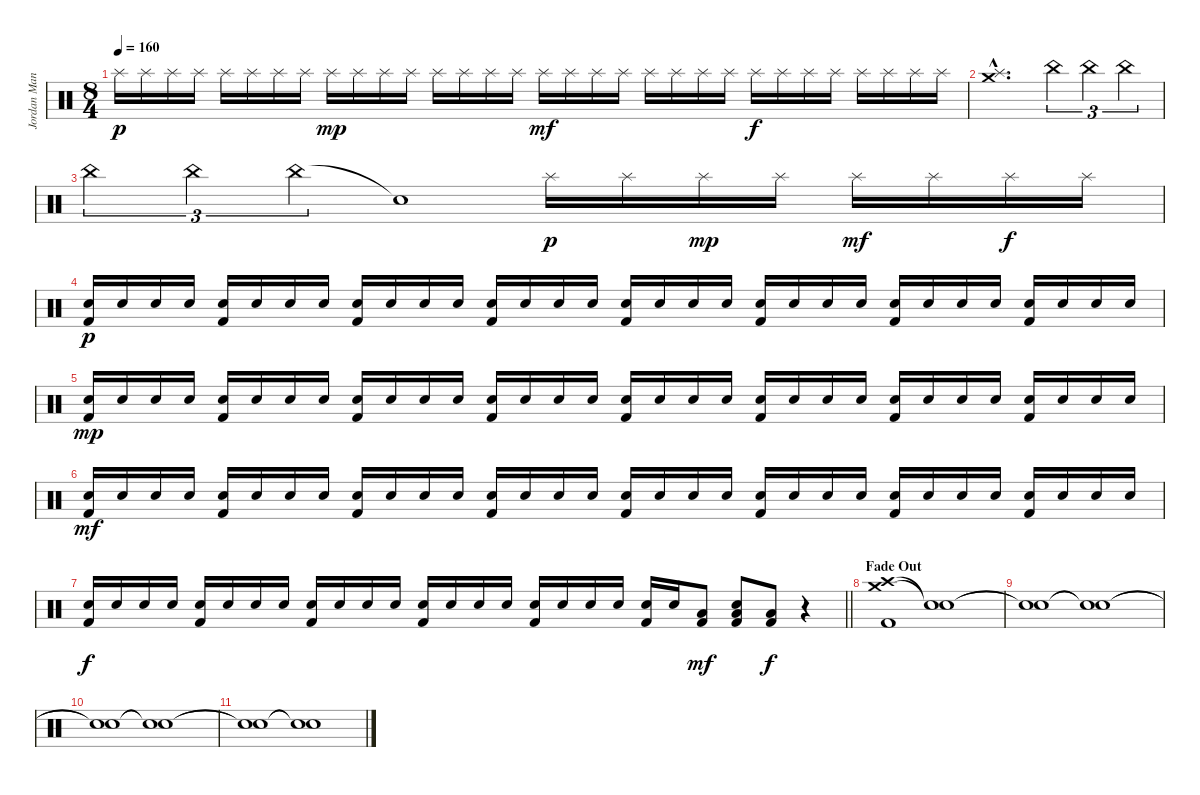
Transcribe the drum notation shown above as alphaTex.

\track ("Jordan Mancino" "Jordan Man") {instrument percussion}
\staff {score}
\articulation defaults
\ts (8 4)
\tempo 160
\clef neutral
\ks c "Splash (hit)".16{dy p} "Splash (hit)".16 "Splash (hit)".16 "Splash (hit)".16 "Splash (hit)".16 "Splash (hit)".16 "Splash (hit)".16 "Splash (hit)".16 "Splash (hit)".16{dy mp} "Splash (hit)".16 "Splash (hit)".16 "Splash (hit)".16 "Splash (hit)".16 "Splash (hit)".16 "Splash (hit)".16 "Splash (hit)".16 "Splash (hit)".16{dy mf} "Splash (hit)".16 "Splash (hit)".16 "Splash (hit)".16 "Splash (hit)".16 "Splash (hit)".16 "Splash (hit)".16 "Splash (hit)".16 "Splash (hit)".16{dy f} "Splash (hit)".16 "Splash (hit)".16 "Splash (hit)".16 "Splash (hit)".16 "Splash (hit)".16 "Splash (hit)".16 "Splash (hit)".16
|
("Crash medium (hit)"{hac} "Splash (hit)"{hac}).1{d} "China (hit)".4{tu (3 2)} "China (hit)".4{tu (3 2)} "China (hit)".4{tu (3 2)} |
"China (hit)".4{tu (3 2)} "China (hit)".4{tu (3 2)} "China (hit)".4{tu (3 2)} "Snare (hit)"{t}.1 "Splash (hit)".16{dy p} "Splash (hit)".16 "Splash (hit)".16{dy mp} "Splash (hit)".16 "Splash (hit)".16{dy mf} "Splash (hit)".16 "Splash (hit)".16{dy f} "Splash (hit)".16 |
("Electric Snare (hit)" "Kick (hit) 2").16{dy p} "Electric Snare (hit)".16 "Electric Snare (hit)".16 "Electric Snare (hit)".16 ("Electric Snare (hit)" "Kick (hit) 2").16 "Electric Snare (hit)".16 "Electric Snare (hit)".16 "Electric Snare (hit)".16 ("Electric Snare (hit)" "Kick (hit) 2").16 "Electric Snare (hit)".16 "Electric Snare (hit)".16 "Electric Snare (hit)".16 ("Electric Snare (hit)" "Kick (hit) 2").16 "Electric Snare (hit)".16 "Electric Snare (hit)".16 "Electric Snare (hit)".16 ("Electric Snare (hit)" "Kick (hit) 2").16 "Electric Snare (hit)".16 "Electric Snare (hit)".16 "Electric Snare (hit)".16 ("Electric Snare (hit)" "Kick (hit) 2").16 "Electric Snare (hit)".16 "Electric Snare (hit)".16 "Electric Snare (hit)".16 ("Electric Snare (hit)" "Kick (hit) 2").16 "Electric Snare (hit)".16 "Electric Snare (hit)".16 "Electric Snare (hit)".16 ("Electric Snare (hit)" "Kick (hit) 2").16 "Electric Snare (hit)".16 "Electric Snare (hit)".16 "Electric Snare (hit)".16 |
("Electric Snare (hit)" "Kick (hit) 2").16{dy mp} "Electric Snare (hit)".16 "Electric Snare (hit)".16 "Electric Snare (hit)".16 ("Electric Snare (hit)" "Kick (hit) 2").16 "Electric Snare (hit)".16 "Electric Snare (hit)".16 "Electric Snare (hit)".16 ("Electric Snare (hit)" "Kick (hit) 2").16 "Electric Snare (hit)".16 "Electric Snare (hit)".16 "Electric Snare (hit)".16 ("Electric Snare (hit)" "Kick (hit) 2").16 "Electric Snare (hit)".16 "Electric Snare (hit)".16 "Electric Snare (hit)".16 ("Electric Snare (hit)" "Kick (hit) 2").16 "Electric Snare (hit)".16 "Electric Snare (hit)".16 "Electric Snare (hit)".16 ("Electric Snare (hit)" "Kick (hit) 2").16 "Electric Snare (hit)".16 "Electric Snare (hit)".16 "Electric Snare (hit)".16 ("Electric Snare (hit)" "Kick (hit) 2").16 "Electric Snare (hit)".16 "Electric Snare (hit)".16 "Electric Snare (hit)".16 ("Electric Snare (hit)" "Kick (hit) 2").16 "Electric Snare (hit)".16 "Electric Snare (hit)".16 "Electric Snare (hit)".16 |
("Electric Snare (hit)" "Kick (hit) 2").16{dy mf} "Electric Snare (hit)".16 "Electric Snare (hit)".16 "Electric Snare (hit)".16 ("Electric Snare (hit)" "Kick (hit) 2").16 "Electric Snare (hit)".16 "Electric Snare (hit)".16 "Electric Snare (hit)".16 ("Electric Snare (hit)" "Kick (hit) 2").16 "Electric Snare (hit)".16 "Electric Snare (hit)".16 "Electric Snare (hit)".16 ("Electric Snare (hit)" "Kick (hit) 2").16 "Electric Snare (hit)".16 "Electric Snare (hit)".16 "Electric Snare (hit)".16 ("Electric Snare (hit)" "Kick (hit) 2").16 "Electric Snare (hit)".16 "Electric Snare (hit)".16 "Electric Snare (hit)".16 ("Electric Snare (hit)" "Kick (hit) 2").16 "Electric Snare (hit)".16 "Electric Snare (hit)".16 "Electric Snare (hit)".16 ("Electric Snare (hit)" "Kick (hit) 2").16 "Electric Snare (hit)".16 "Electric Snare (hit)".16 "Electric Snare (hit)".16 ("Electric Snare (hit)" "Kick (hit) 2").16 "Electric Snare (hit)".16 "Electric Snare (hit)".16 "Electric Snare (hit)".16 |
\barLineRight lightlight
("Electric Snare (hit)" "Kick (hit) 2").16{dy f} "Electric Snare (hit)".16 "Electric Snare (hit)".16 "Electric Snare (hit)".16 ("Electric Snare (hit)" "Kick (hit) 2").16 "Electric Snare (hit)".16 "Electric Snare (hit)".16 "Electric Snare (hit)".16 ("Electric Snare (hit)" "Kick (hit) 2").16 "Electric Snare (hit)".16 "Electric Snare (hit)".16 "Electric Snare (hit)".16 ("Electric Snare (hit)" "Kick (hit) 2").16 "Electric Snare (hit)".16 "Electric Snare (hit)".16 "Electric Snare (hit)".16 ("Electric Snare (hit)" "Kick (hit) 2").16 "Electric Snare (hit)".16 "Electric Snare (hit)".16 "Electric Snare (hit)".16 ("Electric Snare (hit)" "Kick (hit) 2").16 "Electric Snare (hit)".16 ("Low Floor Tom (hit)" "Kick (hit) 2").8{dy mf} ("Electric Snare (hit)" "Low Floor Tom (hit)" "Kick (hit) 2").8 ("Low Floor Tom (hit)" "Kick (hit) 2").8{dy f} r.4 |
\section ("" "Fade Out")
("Crash high (hit)" "Crash medium (hit)" "Kick (hit) 2").1 ("Snare (hit)"{t} "Snare (hit)"{t}).1 |
("Snare (hit)"{t} "Snare (hit)"{t}).1 ("Snare (hit)"{t} "Snare (hit)"{t}).1 |
("Snare (hit)"{t} "Snare (hit)"{t}).1 ("Snare (hit)"{t} "Snare (hit)"{t}).1 |
("Snare (hit)"{t} "Snare (hit)"{t}).1 ("Snare (hit)"{t} "Snare (hit)"{t}).1
